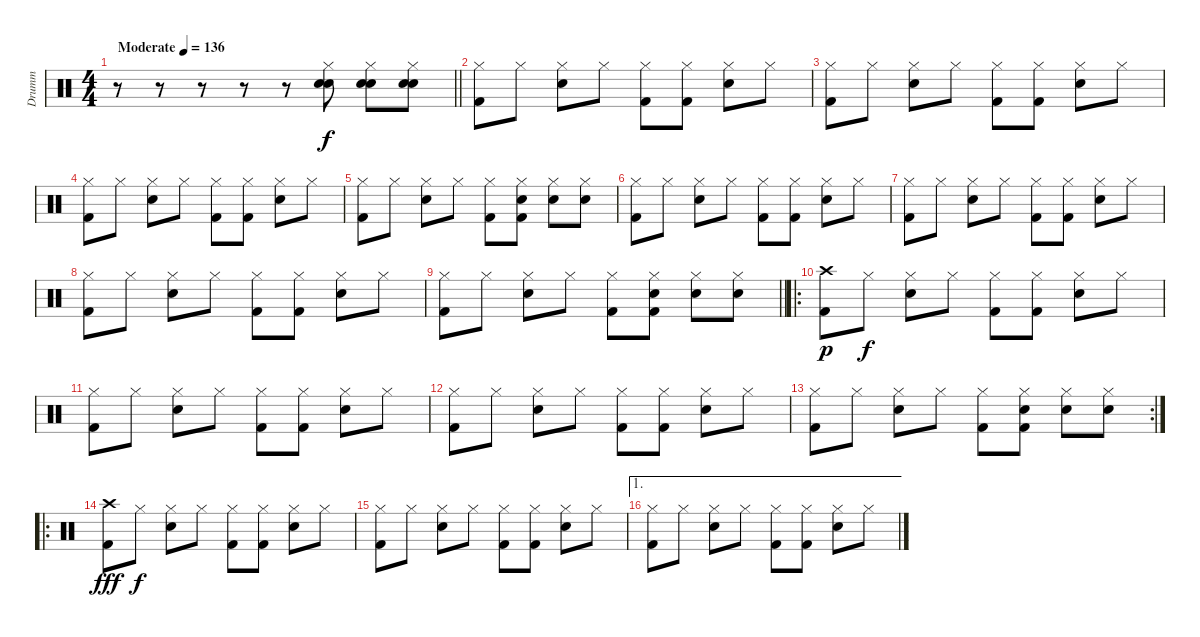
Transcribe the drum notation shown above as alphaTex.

\track ("Drumm" "Drumm") {instrument percussion}
\staff {score}
\articulation defaults
\ts (4 4)
\tempo (136 "Moderate")
\clef neutral
\barLineRight lightlight
\ks c
r.8{dy f} r.8 r.8 r.8 r.8 ("Hi-Hat (closed)" "Electric Snare (hit)" "Snare (hit) 2").8 ("Hi-Hat (closed)" "Electric Snare (hit)" "Snare (hit) 2").8 ("Hi-Hat (closed)" "Electric Snare (hit)" "Snare (hit) 2").8 |
("Hi-Hat (closed)" "Kick (hit) 2").8 "Hi-Hat (closed)".8 ("Hi-Hat (closed)" "Snare (hit) 2").8 "Hi-Hat (closed)".8 ("Hi-Hat (closed)" "Kick (hit) 2").8 ("Hi-Hat (closed)" "Kick (hit) 2").8 ("Hi-Hat (closed)" "Snare (hit) 2").8 "Hi-Hat (closed)".8 |
("Hi-Hat (closed)" "Kick (hit) 2").8 "Hi-Hat (closed)".8 ("Hi-Hat (closed)" "Snare (hit) 2").8 "Hi-Hat (closed)".8 ("Hi-Hat (closed)" "Kick (hit) 2").8 ("Hi-Hat (closed)" "Kick (hit) 2").8 ("Hi-Hat (closed)" "Snare (hit) 2").8 "Hi-Hat (closed)".8 |
("Hi-Hat (closed)" "Kick (hit) 2").8 "Hi-Hat (closed)".8 ("Hi-Hat (closed)" "Snare (hit) 2").8 "Hi-Hat (closed)".8 ("Hi-Hat (closed)" "Kick (hit) 2").8 ("Hi-Hat (closed)" "Kick (hit) 2").8 ("Hi-Hat (closed)" "Snare (hit) 2").8 "Hi-Hat (closed)".8 |
("Hi-Hat (closed)" "Kick (hit) 2").8 "Hi-Hat (closed)".8 ("Hi-Hat (closed)" "Snare (hit) 2").8 "Hi-Hat (closed)".8 ("Hi-Hat (closed)" "Kick (hit) 2").8 ("Hi-Hat (closed)" "Snare (hit) 2" "Kick (hit) 2").8 ("Hi-Hat (closed)" "Snare (hit) 2").8 ("Hi-Hat (closed)" "Snare (hit) 2").8 |
("Hi-Hat (closed)" "Kick (hit) 2").8 "Hi-Hat (closed)".8 ("Hi-Hat (closed)" "Snare (hit) 2").8 "Hi-Hat (closed)".8 ("Hi-Hat (closed)" "Kick (hit) 2").8 ("Hi-Hat (closed)" "Kick (hit) 2").8 ("Hi-Hat (closed)" "Snare (hit) 2").8 "Hi-Hat (closed)".8 |
("Hi-Hat (closed)" "Kick (hit) 2").8 "Hi-Hat (closed)".8 ("Hi-Hat (closed)" "Snare (hit) 2").8 "Hi-Hat (closed)".8 ("Hi-Hat (closed)" "Kick (hit) 2").8 ("Hi-Hat (closed)" "Kick (hit) 2").8 ("Hi-Hat (closed)" "Snare (hit) 2").8 "Hi-Hat (closed)".8 |
("Hi-Hat (closed)" "Kick (hit) 2").8 "Hi-Hat (closed)".8 ("Hi-Hat (closed)" "Snare (hit) 2").8 "Hi-Hat (closed)".8 ("Hi-Hat (closed)" "Kick (hit) 2").8 ("Hi-Hat (closed)" "Kick (hit) 2").8 ("Hi-Hat (closed)" "Snare (hit) 2").8 "Hi-Hat (closed)".8 |
\barLineRight lightlight
("Hi-Hat (closed)" "Kick (hit) 2").8 "Hi-Hat (closed)".8 ("Hi-Hat (closed)" "Snare (hit) 2").8 "Hi-Hat (closed)".8 ("Hi-Hat (closed)" "Kick (hit) 2").8 ("Hi-Hat (closed)" "Snare (hit) 2" "Kick (hit) 2").8 ("Hi-Hat (closed)" "Snare (hit) 2").8 ("Hi-Hat (closed)" "Snare (hit) 2").8 |
\ro
("Crash high (hit)" "Kick (hit) 2").8{dy p} "Hi-Hat (closed)".8{dy f} ("Hi-Hat (closed)" "Snare (hit) 2").8 "Hi-Hat (closed)".8 ("Hi-Hat (closed)" "Kick (hit) 2").8 ("Hi-Hat (closed)" "Kick (hit) 2").8 ("Hi-Hat (closed)" "Snare (hit) 2").8 "Hi-Hat (closed)".8 |
("Hi-Hat (closed)" "Kick (hit) 2").8 "Hi-Hat (closed)".8 ("Hi-Hat (closed)" "Snare (hit) 2").8 "Hi-Hat (closed)".8 ("Hi-Hat (closed)" "Kick (hit) 2").8 ("Hi-Hat (closed)" "Kick (hit) 2").8 ("Hi-Hat (closed)" "Snare (hit) 2").8 "Hi-Hat (closed)".8 |
("Hi-Hat (closed)" "Kick (hit) 2").8 "Hi-Hat (closed)".8 ("Hi-Hat (closed)" "Snare (hit) 2").8 "Hi-Hat (closed)".8 ("Hi-Hat (closed)" "Kick (hit) 2").8 ("Hi-Hat (closed)" "Kick (hit) 2").8 ("Hi-Hat (closed)" "Snare (hit) 2").8 "Hi-Hat (closed)".8 |
\rc 2
("Hi-Hat (closed)" "Kick (hit) 2").8 "Hi-Hat (closed)".8 ("Hi-Hat (closed)" "Snare (hit) 2").8 "Hi-Hat (closed)".8 ("Hi-Hat (closed)" "Kick (hit) 2").8 ("Hi-Hat (closed)" "Snare (hit) 2" "Kick (hit) 2").8 ("Hi-Hat (closed)" "Snare (hit) 2").8 ("Hi-Hat (closed)" "Snare (hit) 2").8 |
\ro
("Crash high (hit)" "Kick (hit) 2").8{dy fff} "Hi-Hat (closed)".8{dy f} ("Hi-Hat (closed)" "Snare (hit) 2").8 "Hi-Hat (closed)".8 ("Hi-Hat (closed)" "Kick (hit) 2").8 ("Hi-Hat (closed)" "Kick (hit) 2").8 ("Hi-Hat (closed)" "Snare (hit) 2").8 "Hi-Hat (closed)".8 |
("Hi-Hat (closed)" "Kick (hit) 2").8 "Hi-Hat (closed)".8 ("Hi-Hat (closed)" "Snare (hit) 2").8 "Hi-Hat (closed)".8 ("Hi-Hat (closed)" "Kick (hit) 2").8 ("Hi-Hat (closed)" "Kick (hit) 2").8 ("Hi-Hat (closed)" "Snare (hit) 2").8 "Hi-Hat (closed)".8 |
\ae 1
("Hi-Hat (closed)" "Kick (hit) 2").8 "Hi-Hat (closed)".8 ("Hi-Hat (closed)" "Snare (hit) 2").8 "Hi-Hat (closed)".8 ("Hi-Hat (closed)" "Kick (hit) 2").8 ("Hi-Hat (closed)" "Kick (hit) 2").8 ("Hi-Hat (closed)" "Snare (hit) 2").8 "Hi-Hat (closed)".8
